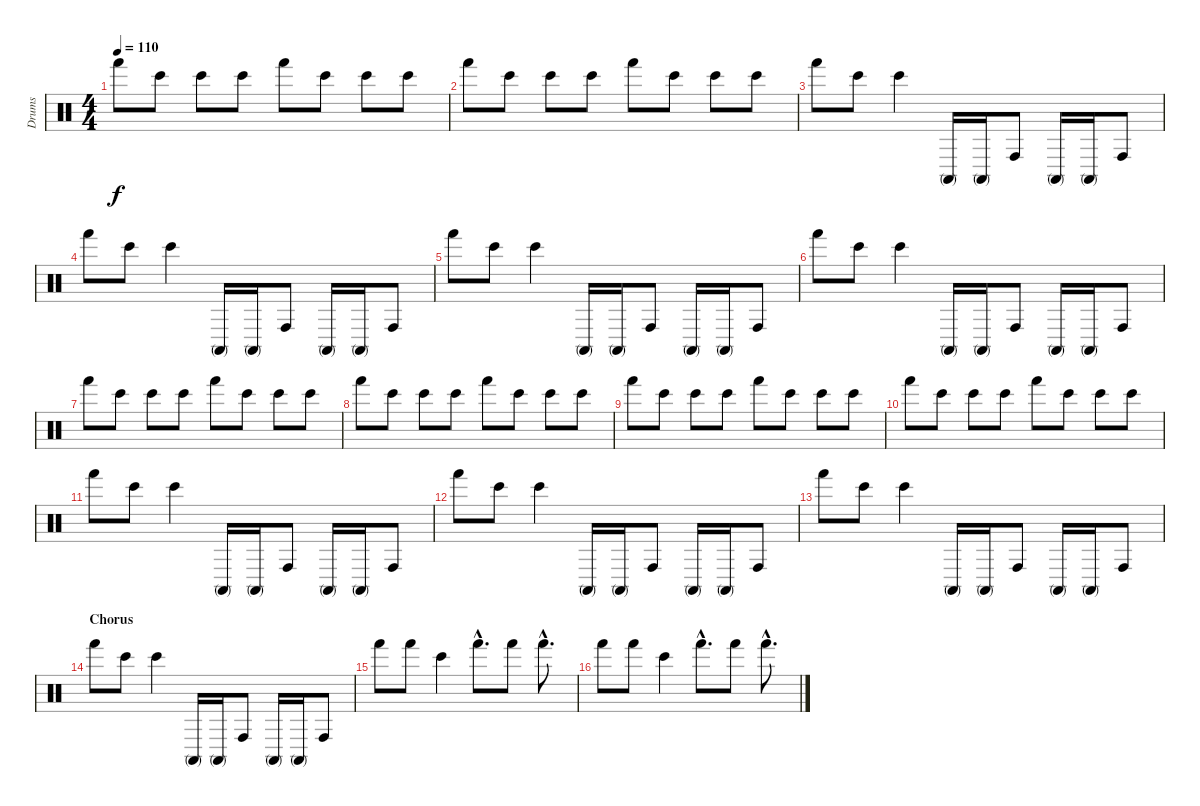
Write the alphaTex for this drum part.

\track ("Drums" "Drums") {instrument percussion}
\staff {score}
\articulation defaults
\ts (4 4)
\tempo 110
\clef neutral
\ks c "Hand (hit)".8{dy f} "Bongo High (hit)".8 "Bongo High (hit)".8 "Bongo High (hit)".8 "Hand (hit)".8 "Bongo High (hit)".8 "Bongo High (hit)".8 "Bongo High (hit)".8
|
"Hand (hit)".8 "Bongo High (hit)".8 "Bongo High (hit)".8 "Bongo High (hit)".8 "Hand (hit)".8 "Bongo High (hit)".8 "Bongo High (hit)".8 "Bongo High (hit)".8 |
"Hand (hit)".8 "Bongo High (hit)".8 "Bongo High (hit)".4 "Conga high (mute)".16 "Conga high (mute)".16 "Conga high (hit)".8 "Conga high (mute)".16 "Conga high (mute)".16 "Conga high (hit)".8 |
"Hand (hit)".8 "Bongo High (hit)".8 "Bongo High (hit)".4 "Conga high (mute)".16 "Conga high (mute)".16 "Conga high (hit)".8 "Conga high (mute)".16 "Conga high (mute)".16 "Conga high (hit)".8 |
"Hand (hit)".8 "Bongo High (hit)".8 "Bongo High (hit)".4 "Conga high (mute)".16 "Conga high (mute)".16 "Conga high (hit)".8 "Conga high (mute)".16 "Conga high (mute)".16 "Conga high (hit)".8 |
"Hand (hit)".8 "Bongo High (hit)".8 "Bongo High (hit)".4 "Conga high (mute)".16 "Conga high (mute)".16 "Conga high (hit)".8 "Conga high (mute)".16 "Conga high (mute)".16 "Conga high (hit)".8 |
"Hand (hit)".8 "Bongo High (hit)".8 "Bongo High (hit)".8 "Bongo High (hit)".8 "Hand (hit)".8 "Bongo High (hit)".8 "Bongo High (hit)".8 "Bongo High (hit)".8 |
"Hand (hit)".8 "Bongo High (hit)".8 "Bongo High (hit)".8 "Bongo High (hit)".8 "Hand (hit)".8 "Bongo High (hit)".8 "Bongo High (hit)".8 "Bongo High (hit)".8 |
"Hand (hit)".8 "Bongo High (hit)".8 "Bongo High (hit)".8 "Bongo High (hit)".8 "Hand (hit)".8 "Bongo High (hit)".8 "Bongo High (hit)".8 "Bongo High (hit)".8 |
"Hand (hit)".8 "Bongo High (hit)".8 "Bongo High (hit)".8 "Bongo High (hit)".8 "Hand (hit)".8 "Bongo High (hit)".8 "Bongo High (hit)".8 "Bongo High (hit)".8 |
"Hand (hit)".8 "Bongo High (hit)".8 "Bongo High (hit)".4 "Conga high (mute)".16 "Conga high (mute)".16 "Conga high (hit)".8 "Conga high (mute)".16 "Conga high (mute)".16 "Conga high (hit)".8 |
"Hand (hit)".8 "Bongo High (hit)".8 "Bongo High (hit)".4 "Conga high (mute)".16 "Conga high (mute)".16 "Conga high (hit)".8 "Conga high (mute)".16 "Conga high (mute)".16 "Conga high (hit)".8 |
"Hand (hit)".8 "Bongo High (hit)".8 "Bongo High (hit)".4 "Conga high (mute)".16 "Conga high (mute)".16 "Conga high (hit)".8 "Conga high (mute)".16 "Conga high (mute)".16 "Conga high (hit)".8 |
\section ("" "Chorus")
"Hand (hit)".8 "Bongo High (hit)".8 "Bongo High (hit)".4 "Conga high (mute)".16 "Conga high (mute)".16 "Conga high (hit)".8 "Conga high (mute)".16 "Conga high (mute)".16 "Conga high (hit)".8 |
"Hand (hit)".8 "Hand (hit)".8 "Bongo High (hit)".4 "Hand (hit)"{hac}.8{d} "Hand (hit)".8 "Hand (hit)"{hac}.8{d} |
"Hand (hit)".8 "Hand (hit)".8 "Bongo High (hit)".4 "Hand (hit)"{hac}.8{d} "Hand (hit)".8 "Hand (hit)"{hac}.8{d}
